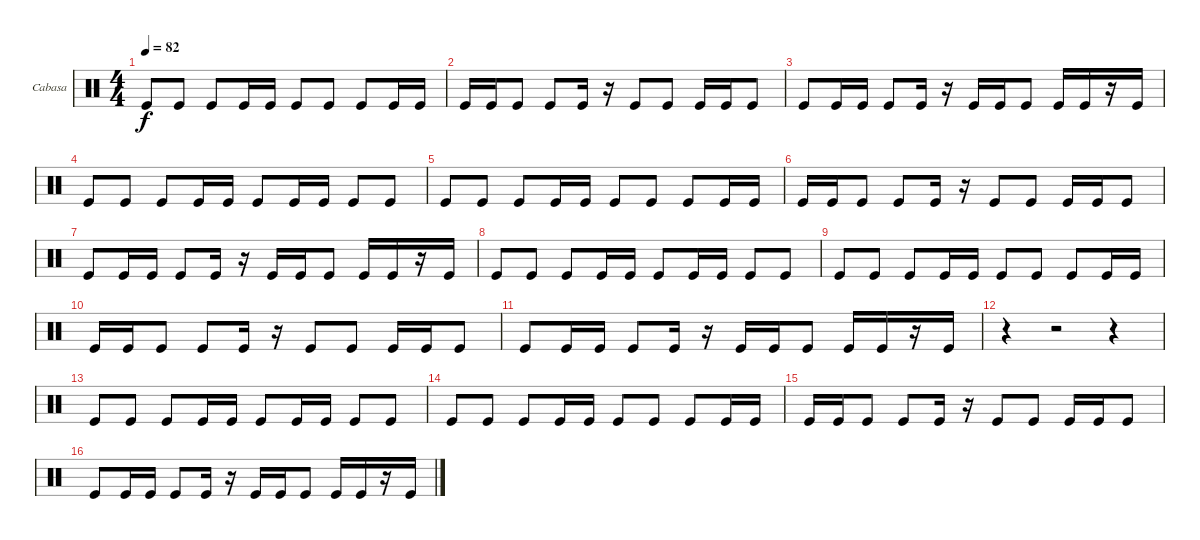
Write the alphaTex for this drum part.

\bracketExtendMode groupsimilarinstruments
\firstSystemTrackNameOrientation horizontal
\otherSystemsTrackNameOrientation horizontal
\track ("Cabasa" "Cabasa") {instrument percussion}
\staff {score}
\articulation defaults
\ts (4 4)
\tempo 82
\clef neutral
\ks c "Kick (hit)".8{dy f} "Kick (hit)".8 "Kick (hit)".8 "Kick (hit)".16 "Kick (hit)".16 "Kick (hit)".8 "Kick (hit)".8 "Kick (hit)".8 "Kick (hit)".16 "Kick (hit)".16
|
"Kick (hit)".16 "Kick (hit)".16 "Kick (hit)".8 "Kick (hit)".8 "Kick (hit)".16 r.16 "Kick (hit)".8 "Kick (hit)".8 "Kick (hit)".16 "Kick (hit)".16 "Kick (hit)".8 |
"Kick (hit)".8 "Kick (hit)".16 "Kick (hit)".16 "Kick (hit)".8 "Kick (hit)".16 r.16 "Kick (hit)".16 "Kick (hit)".16 "Kick (hit)".8 "Kick (hit)".16 "Kick (hit)".16 r.16 "Kick (hit)".16 |
"Kick (hit)".8 "Kick (hit)".8 "Kick (hit)".8 "Kick (hit)".16 "Kick (hit)".16 "Kick (hit)".8 "Kick (hit)".16 "Kick (hit)".16 "Kick (hit)".8 "Kick (hit)".8 |
"Kick (hit)".8 "Kick (hit)".8 "Kick (hit)".8 "Kick (hit)".16 "Kick (hit)".16 "Kick (hit)".8 "Kick (hit)".8 "Kick (hit)".8 "Kick (hit)".16 "Kick (hit)".16 |
"Kick (hit)".16 "Kick (hit)".16 "Kick (hit)".8 "Kick (hit)".8 "Kick (hit)".16 r.16 "Kick (hit)".8 "Kick (hit)".8 "Kick (hit)".16 "Kick (hit)".16 "Kick (hit)".8 |
"Kick (hit)".8 "Kick (hit)".16 "Kick (hit)".16 "Kick (hit)".8 "Kick (hit)".16 r.16 "Kick (hit)".16 "Kick (hit)".16 "Kick (hit)".8 "Kick (hit)".16 "Kick (hit)".16 r.16 "Kick (hit)".16 |
"Kick (hit)".8 "Kick (hit)".8 "Kick (hit)".8 "Kick (hit)".16 "Kick (hit)".16 "Kick (hit)".8 "Kick (hit)".16 "Kick (hit)".16 "Kick (hit)".8 "Kick (hit)".8 |
"Kick (hit)".8 "Kick (hit)".8 "Kick (hit)".8 "Kick (hit)".16 "Kick (hit)".16 "Kick (hit)".8 "Kick (hit)".8 "Kick (hit)".8 "Kick (hit)".16 "Kick (hit)".16 |
"Kick (hit)".16 "Kick (hit)".16 "Kick (hit)".8 "Kick (hit)".8 "Kick (hit)".16 r.16 "Kick (hit)".8 "Kick (hit)".8 "Kick (hit)".16 "Kick (hit)".16 "Kick (hit)".8 |
"Kick (hit)".8 "Kick (hit)".16 "Kick (hit)".16 "Kick (hit)".8 "Kick (hit)".16 r.16 "Kick (hit)".16 "Kick (hit)".16 "Kick (hit)".8 "Kick (hit)".16 "Kick (hit)".16 r.16 "Kick (hit)".16 |
r.4 r.2 r.4 |
"Kick (hit)".8 "Kick (hit)".8 "Kick (hit)".8 "Kick (hit)".16 "Kick (hit)".16 "Kick (hit)".8 "Kick (hit)".16 "Kick (hit)".16 "Kick (hit)".8 "Kick (hit)".8 |
"Kick (hit)".8 "Kick (hit)".8 "Kick (hit)".8 "Kick (hit)".16 "Kick (hit)".16 "Kick (hit)".8 "Kick (hit)".8 "Kick (hit)".8 "Kick (hit)".16 "Kick (hit)".16 |
"Kick (hit)".16 "Kick (hit)".16 "Kick (hit)".8 "Kick (hit)".8 "Kick (hit)".16 r.16 "Kick (hit)".8 "Kick (hit)".8 "Kick (hit)".16 "Kick (hit)".16 "Kick (hit)".8 |
"Kick (hit)".8 "Kick (hit)".16 "Kick (hit)".16 "Kick (hit)".8 "Kick (hit)".16 r.16 "Kick (hit)".16 "Kick (hit)".16 "Kick (hit)".8 "Kick (hit)".16 "Kick (hit)".16 r.16 "Kick (hit)".16
